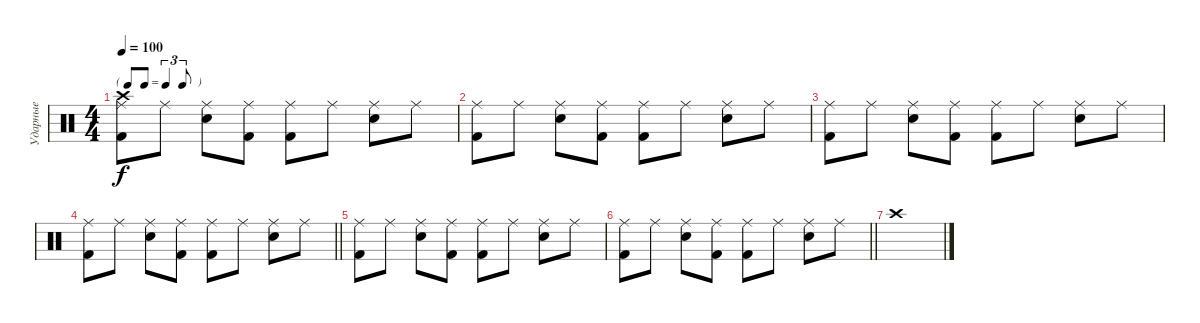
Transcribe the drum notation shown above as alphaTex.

\track ("Ударные" "Ударные") {instrument percussion}
\staff {score}
\articulation defaults
\ts (4 4)
\tf triplet8th
\tempo 100
\clef neutral
\ks c
("Ride (middle)" "Kick (hit) 2" "Crash high (hit)").8{dy f} "Ride (middle)".8 ("Ride (middle)" "Electric Snare (hit)").8 ("Ride (middle)" "Kick (hit) 2").8 ("Ride (middle)" "Kick (hit) 2").8 "Ride (middle)".8 ("Ride (middle)" "Electric Snare (hit)").8 "Ride (middle)".8 |
("Ride (middle)" "Kick (hit) 2").8 "Ride (middle)".8 ("Ride (middle)" "Electric Snare (hit)").8 ("Ride (middle)" "Kick (hit) 2").8 ("Ride (middle)" "Kick (hit) 2").8 "Ride (middle)".8 ("Ride (middle)" "Electric Snare (hit)").8 "Ride (middle)".8 |
("Ride (middle)" "Kick (hit) 2").8 "Ride (middle)".8 ("Ride (middle)" "Electric Snare (hit)").8 ("Ride (middle)" "Kick (hit) 2").8 ("Ride (middle)" "Kick (hit) 2").8 "Ride (middle)".8 ("Ride (middle)" "Electric Snare (hit)").8 "Ride (middle)".8 |
\barLineRight lightlight
("Ride (middle)" "Kick (hit) 2").8 "Ride (middle)".8 ("Ride (middle)" "Electric Snare (hit)").8 ("Ride (middle)" "Kick (hit) 2").8 ("Ride (middle)" "Kick (hit) 2").8 "Ride (middle)".8 ("Ride (middle)" "Electric Snare (hit)").8 "Ride (middle)".8 |
("Ride (middle)" "Kick (hit) 2").8 "Ride (middle)".8 ("Ride (middle)" "Electric Snare (hit)").8 ("Ride (middle)" "Kick (hit) 2").8 ("Ride (middle)" "Kick (hit) 2").8 "Ride (middle)".8 ("Ride (middle)" "Electric Snare (hit)").8 "Ride (middle)".8 |
\barLineRight lightlight
("Ride (middle)" "Kick (hit) 2").8 "Ride (middle)".8 ("Ride (middle)" "Electric Snare (hit)").8 ("Ride (middle)" "Kick (hit) 2").8 ("Ride (middle)" "Kick (hit) 2").8 "Ride (middle)".8 ("Ride (middle)" "Electric Snare (hit)").8 "Ride (middle)".8 |
"Crash high (hit)".1
